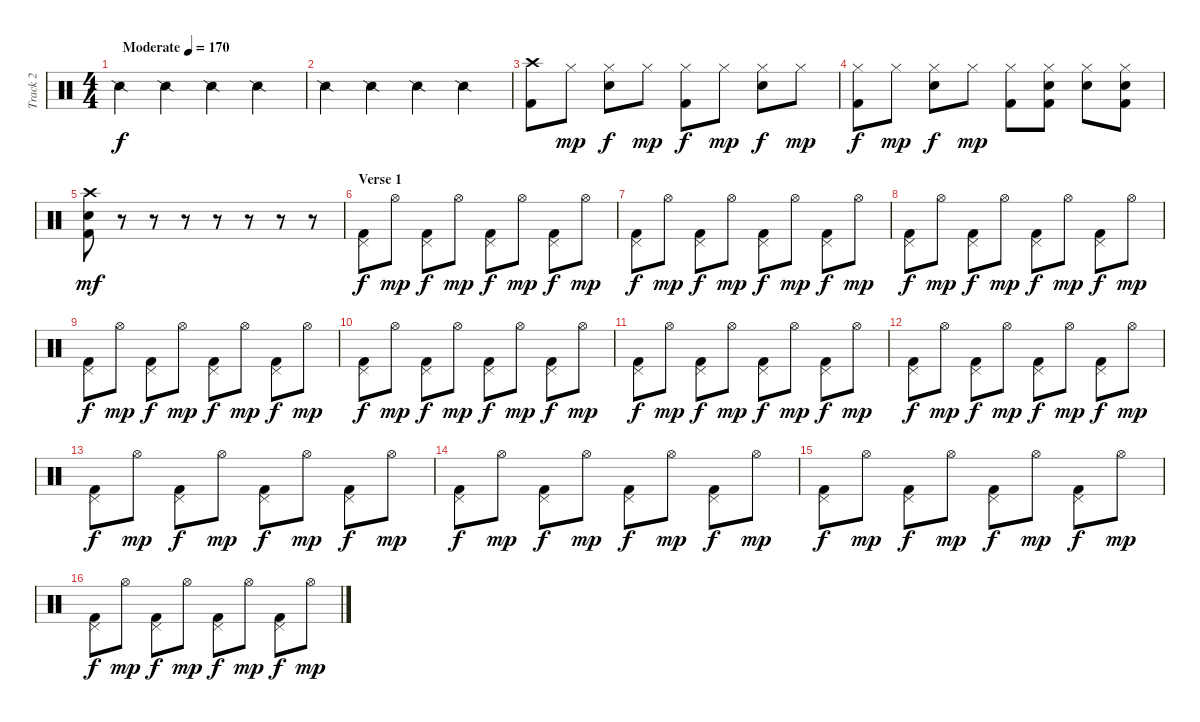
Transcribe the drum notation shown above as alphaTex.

\track ("Track 2" "Track 2") {instrument percussion}
\staff {score}
\articulation defaults
\ts (4 4)
\tempo (170 "Moderate")
\clef neutral
\ks c "Snare (side stick) 2".4{dy f} "Snare (side stick) 2".4 "Snare (side stick) 2".4 "Snare (side stick) 2".4
|
"Snare (side stick) 2".4 "Snare (side stick) 2".4 "Snare (side stick) 2".4 "Snare (side stick) 2".4 |
("Crash high (hit)" "Kick (hit) 2").8 "Hi-Hat (closed)".8{dy mp} ("Hi-Hat (closed)" "Electric Snare (hit)").8{dy f} "Hi-Hat (closed)".8{dy mp} ("Hi-Hat (closed)" "Kick (hit) 2").8{dy f} "Hi-Hat (closed)".8{dy mp} ("Hi-Hat (closed)" "Electric Snare (hit)").8{dy f} "Hi-Hat (closed)".8{dy mp} |
("Hi-Hat (closed)" "Kick (hit) 2").8{dy f} "Hi-Hat (closed)".8{dy mp} ("Hi-Hat (closed)" "Electric Snare (hit)").8{dy f} "Hi-Hat (closed)".8{dy mp} ("Hi-Hat (closed)" "Kick (hit) 2").8 ("Hi-Hat (closed)" "Electric Snare (hit)" "Kick (hit) 2").8 ("Hi-Hat (closed)" "Electric Snare (hit)").8 ("Hi-Hat (closed)" "Electric Snare (hit)" "Kick (hit) 2").8 |
("Crash high (hit)" "Electric Snare (hit)" "Kick (hit) 2").8{dy mf} r.8 r.8 r.8 r.8 r.8 r.8 r.8 |
\section ("" "Verse 1")
("Pedal Hi-Hat (hit)" "Kick (hit) 2").8{dy f} "Hi-Hat (open)".8{dy mp} ("Pedal Hi-Hat (hit)" "Kick (hit) 2").8{dy f} "Hi-Hat (open)".8{dy mp} ("Pedal Hi-Hat (hit)" "Kick (hit) 2").8{dy f} "Hi-Hat (open)".8{dy mp} ("Pedal Hi-Hat (hit)" "Kick (hit) 2").8{dy f} "Hi-Hat (open)".8{dy mp} |
("Pedal Hi-Hat (hit)" "Kick (hit) 2").8{dy f} "Hi-Hat (open)".8{dy mp} ("Pedal Hi-Hat (hit)" "Kick (hit) 2").8{dy f} "Hi-Hat (open)".8{dy mp} ("Pedal Hi-Hat (hit)" "Kick (hit) 2").8{dy f} "Hi-Hat (open)".8{dy mp} ("Pedal Hi-Hat (hit)" "Kick (hit) 2").8{dy f} "Hi-Hat (open)".8{dy mp} |
("Pedal Hi-Hat (hit)" "Kick (hit) 2").8{dy f} "Hi-Hat (open)".8{dy mp} ("Pedal Hi-Hat (hit)" "Kick (hit) 2").8{dy f} "Hi-Hat (open)".8{dy mp} ("Pedal Hi-Hat (hit)" "Kick (hit) 2").8{dy f} "Hi-Hat (open)".8{dy mp} ("Pedal Hi-Hat (hit)" "Kick (hit) 2").8{dy f} "Hi-Hat (open)".8{dy mp} |
("Pedal Hi-Hat (hit)" "Kick (hit) 2").8{dy f} "Hi-Hat (open)".8{dy mp} ("Pedal Hi-Hat (hit)" "Kick (hit) 2").8{dy f} "Hi-Hat (open)".8{dy mp} ("Pedal Hi-Hat (hit)" "Kick (hit) 2").8{dy f} "Hi-Hat (open)".8{dy mp} ("Pedal Hi-Hat (hit)" "Kick (hit) 2").8{dy f} "Hi-Hat (open)".8{dy mp} |
("Pedal Hi-Hat (hit)" "Kick (hit) 2").8{dy f} "Hi-Hat (open)".8{dy mp} ("Pedal Hi-Hat (hit)" "Kick (hit) 2").8{dy f} "Hi-Hat (open)".8{dy mp} ("Pedal Hi-Hat (hit)" "Kick (hit) 2").8{dy f} "Hi-Hat (open)".8{dy mp} ("Pedal Hi-Hat (hit)" "Kick (hit) 2").8{dy f} "Hi-Hat (open)".8{dy mp} |
("Pedal Hi-Hat (hit)" "Kick (hit) 2").8{dy f} "Hi-Hat (open)".8{dy mp} ("Pedal Hi-Hat (hit)" "Kick (hit) 2").8{dy f} "Hi-Hat (open)".8{dy mp} ("Pedal Hi-Hat (hit)" "Kick (hit) 2").8{dy f} "Hi-Hat (open)".8{dy mp} ("Pedal Hi-Hat (hit)" "Kick (hit) 2").8{dy f} "Hi-Hat (open)".8{dy mp} |
("Pedal Hi-Hat (hit)" "Kick (hit) 2").8{dy f} "Hi-Hat (open)".8{dy mp} ("Pedal Hi-Hat (hit)" "Kick (hit) 2").8{dy f} "Hi-Hat (open)".8{dy mp} ("Pedal Hi-Hat (hit)" "Kick (hit) 2").8{dy f} "Hi-Hat (open)".8{dy mp} ("Pedal Hi-Hat (hit)" "Kick (hit) 2").8{dy f} "Hi-Hat (open)".8{dy mp} |
("Pedal Hi-Hat (hit)" "Kick (hit) 2").8{dy f} "Hi-Hat (open)".8{dy mp} ("Pedal Hi-Hat (hit)" "Kick (hit) 2").8{dy f} "Hi-Hat (open)".8{dy mp} ("Pedal Hi-Hat (hit)" "Kick (hit) 2").8{dy f} "Hi-Hat (open)".8{dy mp} ("Pedal Hi-Hat (hit)" "Kick (hit) 2").8{dy f} "Hi-Hat (open)".8{dy mp} |
("Pedal Hi-Hat (hit)" "Kick (hit) 2").8{dy f} "Hi-Hat (open)".8{dy mp} ("Pedal Hi-Hat (hit)" "Kick (hit) 2").8{dy f} "Hi-Hat (open)".8{dy mp} ("Pedal Hi-Hat (hit)" "Kick (hit) 2").8{dy f} "Hi-Hat (open)".8{dy mp} ("Pedal Hi-Hat (hit)" "Kick (hit) 2").8{dy f} "Hi-Hat (open)".8{dy mp} |
("Pedal Hi-Hat (hit)" "Kick (hit) 2").8{dy f} "Hi-Hat (open)".8{dy mp} ("Pedal Hi-Hat (hit)" "Kick (hit) 2").8{dy f} "Hi-Hat (open)".8{dy mp} ("Pedal Hi-Hat (hit)" "Kick (hit) 2").8{dy f} "Hi-Hat (open)".8{dy mp} ("Pedal Hi-Hat (hit)" "Kick (hit) 2").8{dy f} "Hi-Hat (open)".8{dy mp} |
("Pedal Hi-Hat (hit)" "Kick (hit) 2").8{dy f} "Hi-Hat (open)".8{dy mp} ("Pedal Hi-Hat (hit)" "Kick (hit) 2").8{dy f} "Hi-Hat (open)".8{dy mp} ("Pedal Hi-Hat (hit)" "Kick (hit) 2").8{dy f} "Hi-Hat (open)".8{dy mp} ("Pedal Hi-Hat (hit)" "Kick (hit) 2").8{dy f} "Hi-Hat (open)".8{dy mp}
